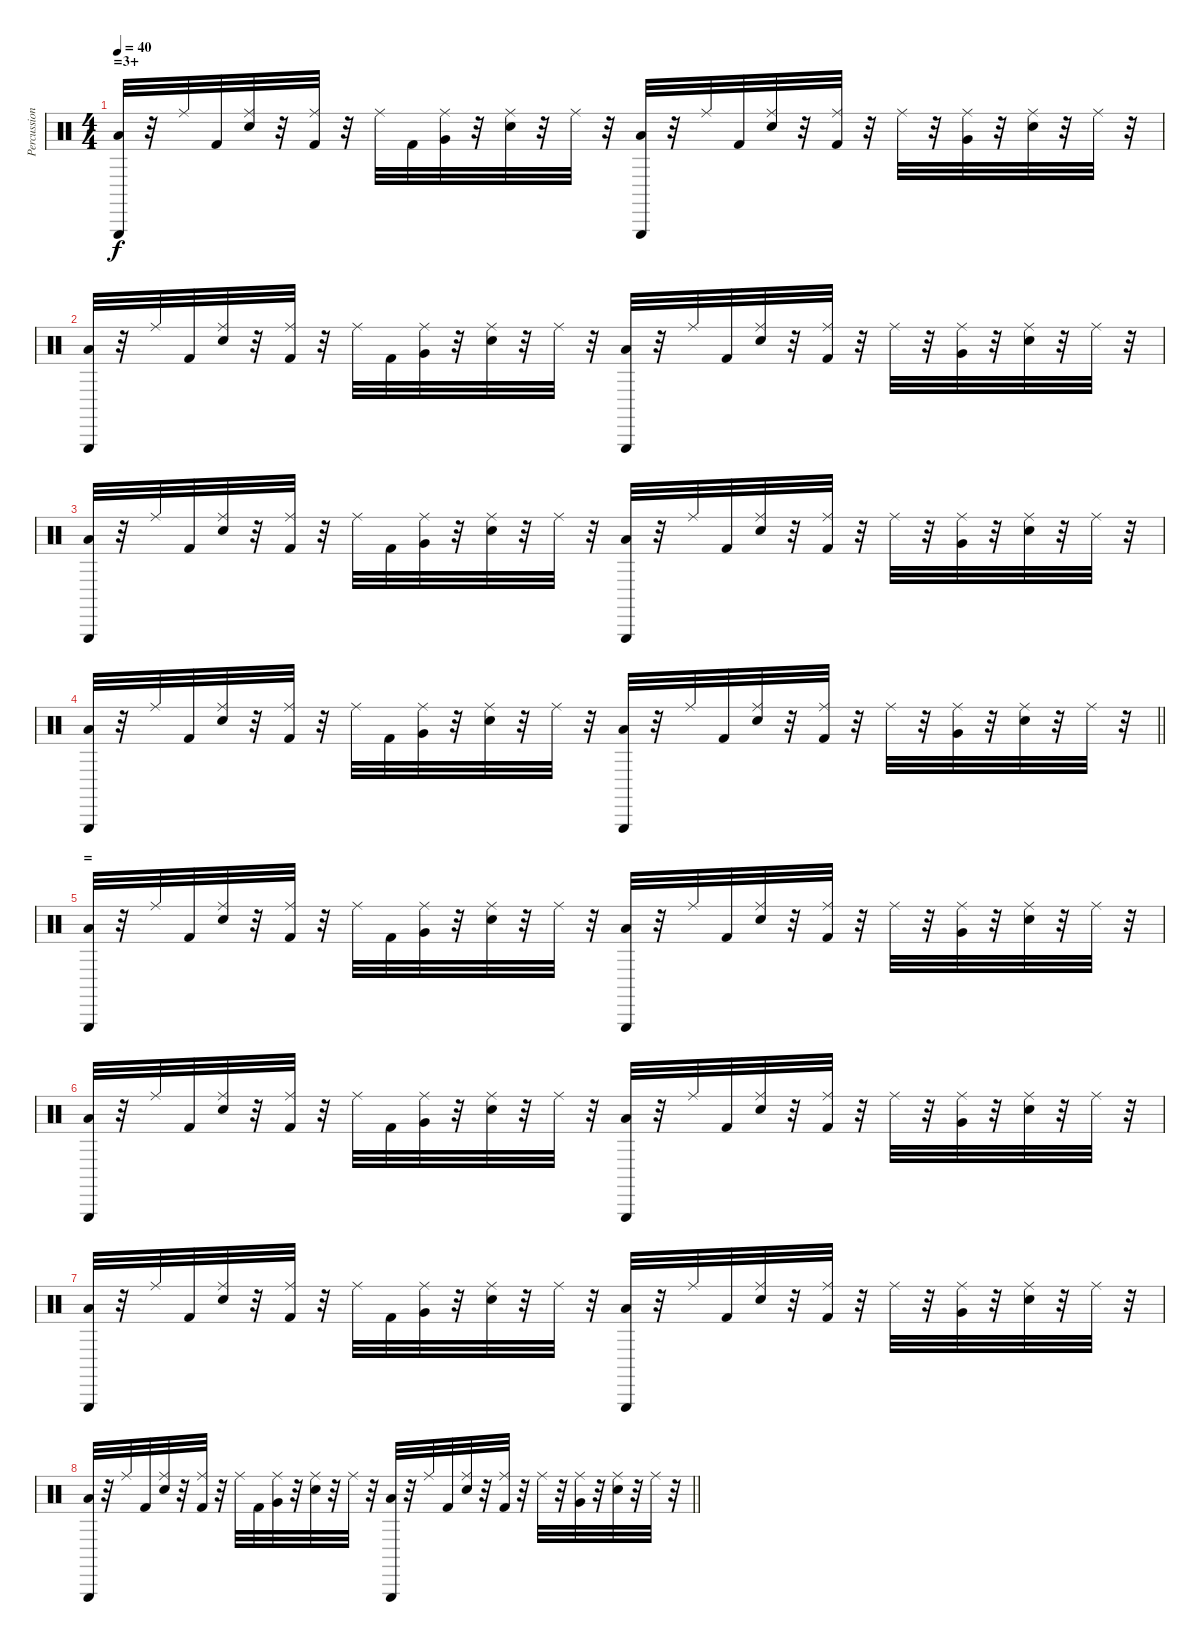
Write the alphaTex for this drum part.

\track ("Percussion" "Percussion") {instrument percussion}
\staff {score}
\articulation defaults
\ts (4 4)
\section ("" "=3+")
\tempo 40
\clef neutral
\ks c
("Low Floor Tom (hit)" "Triangle (hit)").32{dy f} r.32 "Ride (middle)".32 "Kick (hit) 2".32 ("Electric Snare (hit)" "Ride (middle)").32 r.32 ("Kick (hit) 2" "Ride (middle)").32 r.32 "Ride (middle)".32 "Kick (hit) 2".32 ("Very Low Tom (hit)" "Ride (middle)").32 r.32 ("Electric Snare (hit)" "Ride (middle)").32 r.32 "Ride (middle)".32 r.32 ("Low Floor Tom (hit)" "Triangle (hit)").32 r.32 "Ride (middle)".32 "Kick (hit) 2".32 ("Electric Snare (hit)" "Ride (middle)").32 r.32 ("Kick (hit) 2" "Ride (middle)").32 r.32 "Ride (middle)".32 r.32 ("Very Low Tom (hit)" "Ride (middle)").32 r.32 ("Electric Snare (hit)" "Ride (middle)").32 r.32 "Ride (middle)".32 r.32 |
("Low Floor Tom (hit)" "Triangle (hit)").32 r.32 "Ride (middle)".32 "Kick (hit) 2".32 ("Electric Snare (hit)" "Ride (middle)").32 r.32 ("Kick (hit) 2" "Ride (middle)").32 r.32 "Ride (middle)".32 "Kick (hit) 2".32 ("Very Low Tom (hit)" "Ride (middle)").32 r.32 ("Electric Snare (hit)" "Ride (middle)").32 r.32 "Ride (middle)".32 r.32 ("Low Floor Tom (hit)" "Triangle (hit)").32 r.32 "Ride (middle)".32 "Kick (hit) 2".32 ("Electric Snare (hit)" "Ride (middle)").32 r.32 ("Kick (hit) 2" "Ride (middle)").32 r.32 "Ride (middle)".32 r.32 ("Very Low Tom (hit)" "Ride (middle)").32 r.32 ("Electric Snare (hit)" "Ride (middle)").32 r.32 "Ride (middle)".32 r.32 |
("Low Floor Tom (hit)" "Triangle (hit)").32 r.32 "Ride (middle)".32 "Kick (hit) 2".32 ("Electric Snare (hit)" "Ride (middle)").32 r.32 ("Kick (hit) 2" "Ride (middle)").32 r.32 "Ride (middle)".32 "Kick (hit) 2".32 ("Very Low Tom (hit)" "Ride (middle)").32 r.32 ("Electric Snare (hit)" "Ride (middle)").32 r.32 "Ride (middle)".32 r.32 ("Low Floor Tom (hit)" "Triangle (hit)").32 r.32 "Ride (middle)".32 "Kick (hit) 2".32 ("Electric Snare (hit)" "Ride (middle)").32 r.32 ("Kick (hit) 2" "Ride (middle)").32 r.32 "Ride (middle)".32 r.32 ("Very Low Tom (hit)" "Ride (middle)").32 r.32 ("Electric Snare (hit)" "Ride (middle)").32 r.32 "Ride (middle)".32 r.32 |
\barLineRight lightlight
("Low Floor Tom (hit)" "Triangle (hit)").32 r.32 "Ride (middle)".32 "Kick (hit) 2".32 ("Electric Snare (hit)" "Ride (middle)").32 r.32 ("Kick (hit) 2" "Ride (middle)").32 r.32 "Ride (middle)".32 "Kick (hit) 2".32 ("Very Low Tom (hit)" "Ride (middle)").32 r.32 ("Electric Snare (hit)" "Ride (middle)").32 r.32 "Ride (middle)".32 r.32 ("Low Floor Tom (hit)" "Triangle (hit)").32 r.32 "Ride (middle)".32 "Kick (hit) 2".32 ("Electric Snare (hit)" "Ride (middle)").32 r.32 ("Kick (hit) 2" "Ride (middle)").32 r.32 "Ride (middle)".32 r.32 ("Very Low Tom (hit)" "Ride (middle)").32 r.32 ("Electric Snare (hit)" "Ride (middle)").32 r.32 "Ride (middle)".32 r.32 |
\section ("" "=")
("Low Floor Tom (hit)" "Triangle (hit)").32 r.32 "Ride (middle)".32 "Kick (hit) 2".32 ("Electric Snare (hit)" "Ride (middle)").32 r.32 ("Kick (hit) 2" "Ride (middle)").32 r.32 "Ride (middle)".32 "Kick (hit) 2".32 ("Very Low Tom (hit)" "Ride (middle)").32 r.32 ("Electric Snare (hit)" "Ride (middle)").32 r.32 "Ride (middle)".32 r.32 ("Low Floor Tom (hit)" "Triangle (hit)").32 r.32 "Ride (middle)".32 "Kick (hit) 2".32 ("Electric Snare (hit)" "Ride (middle)").32 r.32 ("Kick (hit) 2" "Ride (middle)").32 r.32 "Ride (middle)".32 r.32 ("Very Low Tom (hit)" "Ride (middle)").32 r.32 ("Electric Snare (hit)" "Ride (middle)").32 r.32 "Ride (middle)".32 r.32 |
("Low Floor Tom (hit)" "Triangle (hit)").32 r.32 "Ride (middle)".32 "Kick (hit) 2".32 ("Electric Snare (hit)" "Ride (middle)").32 r.32 ("Kick (hit) 2" "Ride (middle)").32 r.32 "Ride (middle)".32 "Kick (hit) 2".32 ("Very Low Tom (hit)" "Ride (middle)").32 r.32 ("Electric Snare (hit)" "Ride (middle)").32 r.32 "Ride (middle)".32 r.32 ("Low Floor Tom (hit)" "Triangle (hit)").32 r.32 "Ride (middle)".32 "Kick (hit) 2".32 ("Electric Snare (hit)" "Ride (middle)").32 r.32 ("Kick (hit) 2" "Ride (middle)").32 r.32 "Ride (middle)".32 r.32 ("Very Low Tom (hit)" "Ride (middle)").32 r.32 ("Electric Snare (hit)" "Ride (middle)").32 r.32 "Ride (middle)".32 r.32 |
("Low Floor Tom (hit)" "Triangle (hit)").32 r.32 "Ride (middle)".32 "Kick (hit) 2".32 ("Electric Snare (hit)" "Ride (middle)").32 r.32 ("Kick (hit) 2" "Ride (middle)").32 r.32 "Ride (middle)".32 "Kick (hit) 2".32 ("Very Low Tom (hit)" "Ride (middle)").32 r.32 ("Electric Snare (hit)" "Ride (middle)").32 r.32 "Ride (middle)".32 r.32 ("Low Floor Tom (hit)" "Triangle (hit)").32 r.32 "Ride (middle)".32 "Kick (hit) 2".32 ("Electric Snare (hit)" "Ride (middle)").32 r.32 ("Kick (hit) 2" "Ride (middle)").32 r.32 "Ride (middle)".32 r.32 ("Very Low Tom (hit)" "Ride (middle)").32 r.32 ("Electric Snare (hit)" "Ride (middle)").32 r.32 "Ride (middle)".32 r.32 |
\barLineRight lightlight
("Low Floor Tom (hit)" "Triangle (hit)").32 r.32 "Ride (middle)".32 "Kick (hit) 2".32 ("Electric Snare (hit)" "Ride (middle)").32 r.32 ("Kick (hit) 2" "Ride (middle)").32 r.32 "Ride (middle)".32 "Kick (hit) 2".32 ("Very Low Tom (hit)" "Ride (middle)").32 r.32 ("Electric Snare (hit)" "Ride (middle)").32 r.32 "Ride (middle)".32 r.32 ("Low Floor Tom (hit)" "Triangle (hit)").32 r.32 "Ride (middle)".32 "Kick (hit) 2".32 ("Electric Snare (hit)" "Ride (middle)").32 r.32 ("Kick (hit) 2" "Ride (middle)").32 r.32 "Ride (middle)".32 r.32 ("Very Low Tom (hit)" "Ride (middle)").32 r.32 ("Electric Snare (hit)" "Ride (middle)").32 r.32 "Ride (middle)".32 r.32
